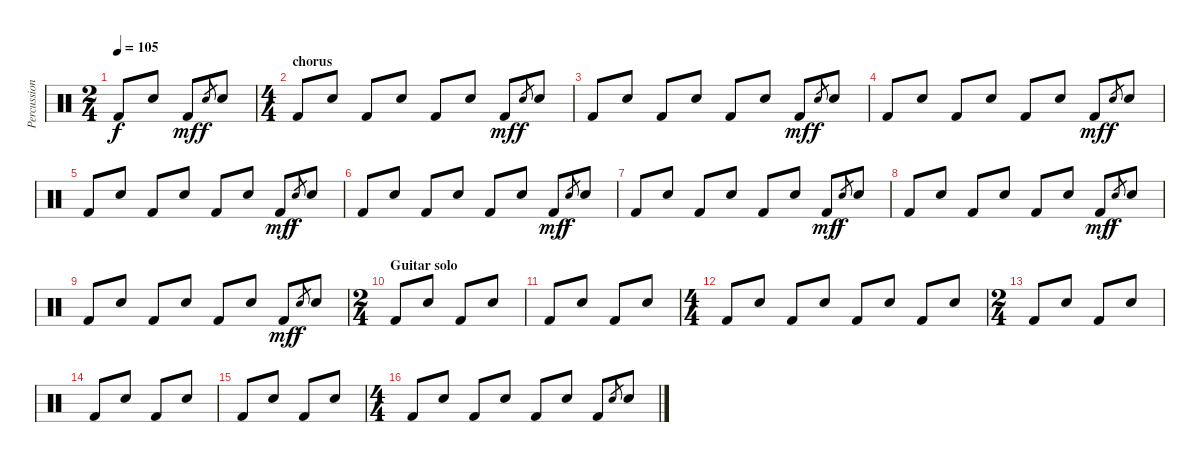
\track ("Percussion" "Percussion") {instrument percussion}
\staff {score}
\articulation defaults
\ts (2 4)
\tempo 105
\clef neutral
\ks c "Kick (hit) 2".8{dy f} "Electric Snare (hit)".8 "Kick (hit) 2".8{dy mf} "Electric Snare (hit)".8{gr dy f} "Electric Snare (hit)".8
|
\ts (4 4)
\section ("" "chorus")
"Kick (hit) 2".8 "Electric Snare (hit)".8 "Kick (hit) 2".8 "Electric Snare (hit)".8 "Kick (hit) 2".8 "Electric Snare (hit)".8 "Kick (hit) 2".8{dy mf} "Electric Snare (hit)".8{gr dy f} "Electric Snare (hit)".8 |
"Kick (hit) 2".8 "Electric Snare (hit)".8 "Kick (hit) 2".8 "Electric Snare (hit)".8 "Kick (hit) 2".8 "Electric Snare (hit)".8 "Kick (hit) 2".8{dy mf} "Electric Snare (hit)".8{gr dy f} "Electric Snare (hit)".8 |
"Kick (hit) 2".8 "Electric Snare (hit)".8 "Kick (hit) 2".8 "Electric Snare (hit)".8 "Kick (hit) 2".8 "Electric Snare (hit)".8 "Kick (hit) 2".8{dy mf} "Electric Snare (hit)".8{gr dy f} "Electric Snare (hit)".8 |
"Kick (hit) 2".8 "Electric Snare (hit)".8 "Kick (hit) 2".8 "Electric Snare (hit)".8 "Kick (hit) 2".8 "Electric Snare (hit)".8 "Kick (hit) 2".8{dy mf} "Electric Snare (hit)".8{gr dy f} "Electric Snare (hit)".8 |
"Kick (hit) 2".8 "Electric Snare (hit)".8 "Kick (hit) 2".8 "Electric Snare (hit)".8 "Kick (hit) 2".8 "Electric Snare (hit)".8 "Kick (hit) 2".8{dy mf} "Electric Snare (hit)".8{gr dy f} "Electric Snare (hit)".8 |
"Kick (hit) 2".8 "Electric Snare (hit)".8 "Kick (hit) 2".8 "Electric Snare (hit)".8 "Kick (hit) 2".8 "Electric Snare (hit)".8 "Kick (hit) 2".8{dy mf} "Electric Snare (hit)".8{gr dy f} "Electric Snare (hit)".8 |
"Kick (hit) 2".8 "Electric Snare (hit)".8 "Kick (hit) 2".8 "Electric Snare (hit)".8 "Kick (hit) 2".8 "Electric Snare (hit)".8 "Kick (hit) 2".8{dy mf} "Electric Snare (hit)".8{gr dy f} "Electric Snare (hit)".8 |
"Kick (hit) 2".8 "Electric Snare (hit)".8 "Kick (hit) 2".8 "Electric Snare (hit)".8 "Kick (hit) 2".8 "Electric Snare (hit)".8 "Kick (hit) 2".8{dy mf} "Electric Snare (hit)".8{gr dy f} "Electric Snare (hit)".8 |
\ts (2 4)
\section ("" "Guitar solo")
"Kick (hit) 2".8 "Electric Snare (hit)".8 "Kick (hit) 2".8 "Electric Snare (hit)".8 |
"Kick (hit) 2".8 "Electric Snare (hit)".8 "Kick (hit) 2".8 "Electric Snare (hit)".8 |
\ts (4 4)
"Kick (hit) 2".8 "Electric Snare (hit)".8 "Kick (hit) 2".8 "Electric Snare (hit)".8 "Kick (hit) 2".8 "Electric Snare (hit)".8 "Kick (hit) 2".8 "Electric Snare (hit)".8 |
\ts (2 4)
"Kick (hit) 2".8 "Electric Snare (hit)".8 "Kick (hit) 2".8 "Electric Snare (hit)".8 |
"Kick (hit) 2".8 "Electric Snare (hit)".8 "Kick (hit) 2".8 "Electric Snare (hit)".8 |
"Kick (hit) 2".8 "Electric Snare (hit)".8 "Kick (hit) 2".8 "Electric Snare (hit)".8 |
\ts (4 4)
"Kick (hit) 2".8 "Electric Snare (hit)".8 "Kick (hit) 2".8 "Electric Snare (hit)".8 "Kick (hit) 2".8 "Electric Snare (hit)".8 "Kick (hit) 2".8 "Electric Snare (hit)".8{gr} "Electric Snare (hit)".8
